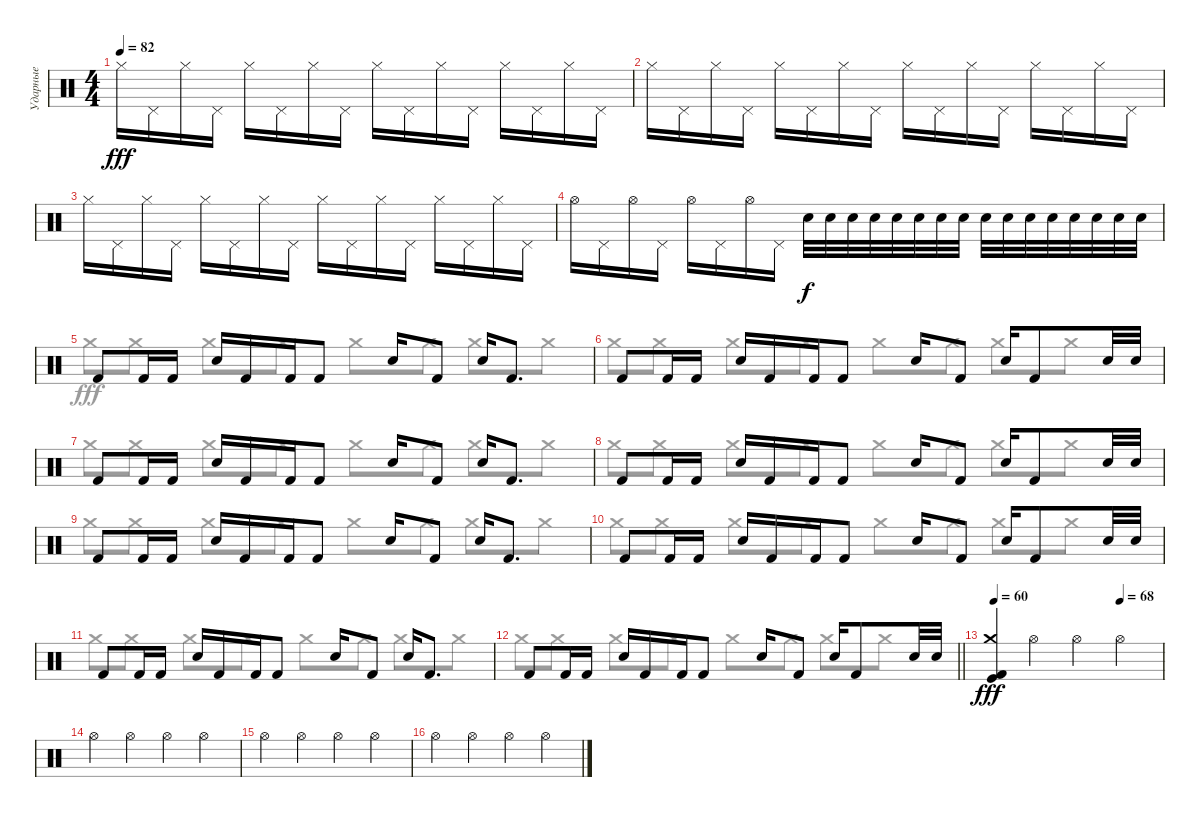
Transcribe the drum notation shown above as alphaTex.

\track ("Ударные" "Ударные") {instrument percussion}
\staff {score}
\articulation defaults
\voice
\ts (4 4)
\tempo 82
\clef neutral
\ks c "Hi-Hat (closed)".16{dy fff} "Pedal Hi-Hat (hit)".16 "Hi-Hat (closed)".16 "Pedal Hi-Hat (hit)".16 "Hi-Hat (closed)".16 "Pedal Hi-Hat (hit)".16 "Hi-Hat (closed)".16 "Pedal Hi-Hat (hit)".16 "Hi-Hat (closed)".16 "Pedal Hi-Hat (hit)".16 "Hi-Hat (closed)".16 "Pedal Hi-Hat (hit)".16 "Hi-Hat (closed)".16 "Pedal Hi-Hat (hit)".16 "Hi-Hat (closed)".16 "Pedal Hi-Hat (hit)".16
|
"Hi-Hat (closed)".16 "Pedal Hi-Hat (hit)".16 "Hi-Hat (closed)".16 "Pedal Hi-Hat (hit)".16 "Hi-Hat (closed)".16 "Pedal Hi-Hat (hit)".16 "Hi-Hat (closed)".16 "Pedal Hi-Hat (hit)".16 "Hi-Hat (closed)".16 "Pedal Hi-Hat (hit)".16 "Hi-Hat (closed)".16 "Pedal Hi-Hat (hit)".16 "Hi-Hat (closed)".16 "Pedal Hi-Hat (hit)".16 "Hi-Hat (closed)".16 "Pedal Hi-Hat (hit)".16 |
"Hi-Hat (closed)".16 "Pedal Hi-Hat (hit)".16 "Hi-Hat (closed)".16 "Pedal Hi-Hat (hit)".16 "Hi-Hat (closed)".16 "Pedal Hi-Hat (hit)".16 "Hi-Hat (closed)".16 "Pedal Hi-Hat (hit)".16 "Hi-Hat (closed)".16 "Pedal Hi-Hat (hit)".16 "Hi-Hat (closed)".16 "Pedal Hi-Hat (hit)".16 "Hi-Hat (closed)".16 "Pedal Hi-Hat (hit)".16 "Hi-Hat (closed)".16 "Pedal Hi-Hat (hit)".16 |
"Hi-Hat (open)".16 "Pedal Hi-Hat (hit)".16 "Hi-Hat (open)".16 "Pedal Hi-Hat (hit)".16 "Hi-Hat (open)".16 "Pedal Hi-Hat (hit)".16 "Hi-Hat (open)".16 "Pedal Hi-Hat (hit)".16 "Electric Snare (hit)".32{dy f} "Electric Snare (hit)".32 "Electric Snare (hit)".32 "Electric Snare (hit)".32 "Electric Snare (hit)".32 "Electric Snare (hit)".32 "Electric Snare (hit)".32 "Electric Snare (hit)".32 "Snare (hit) 2".32 "Snare (hit) 2".32 "Snare (hit) 2".32 "Snare (hit) 2".32 "Snare (hit) 2".32 "Snare (hit) 2".32 "Snare (hit) 2".32 "Snare (hit) 2".32 |
"Kick (hit) 2".8 "Kick (hit) 2".16 "Kick (hit) 2".16 "Snare (hit) 2".16 "Kick (hit) 2".16 "Kick (hit) 2".16 "Kick (hit) 2".8 "Snare (hit) 2".16 "Kick (hit) 2".8 "Snare (hit) 2".16 "Kick (hit) 2".8{d} |
"Kick (hit) 2".8 "Kick (hit) 2".16 "Kick (hit) 2".16 "Snare (hit) 2".16 "Kick (hit) 2".16 "Kick (hit) 2".16 "Kick (hit) 2".8 "Snare (hit) 2".16 "Kick (hit) 2".8 "Snare (hit) 2".16 "Kick (hit) 2".8 "Snare (hit) 2".32 "Snare (hit) 2".32 |
"Kick (hit) 2".8 "Kick (hit) 2".16 "Kick (hit) 2".16 "Snare (hit) 2".16 "Kick (hit) 2".16 "Kick (hit) 2".16 "Kick (hit) 2".8 "Snare (hit) 2".16 "Kick (hit) 2".8 "Snare (hit) 2".16 "Kick (hit) 2".8{d} |
"Kick (hit) 2".8 "Kick (hit) 2".16 "Kick (hit) 2".16 "Snare (hit) 2".16 "Kick (hit) 2".16 "Kick (hit) 2".16 "Kick (hit) 2".8 "Snare (hit) 2".16 "Kick (hit) 2".8 "Snare (hit) 2".16 "Kick (hit) 2".8 "Snare (hit) 2".32 "Snare (hit) 2".32 |
"Kick (hit) 2".8 "Kick (hit) 2".16 "Kick (hit) 2".16 "Snare (hit) 2".16 "Kick (hit) 2".16 "Kick (hit) 2".16 "Kick (hit) 2".8 "Snare (hit) 2".16 "Kick (hit) 2".8 "Snare (hit) 2".16 "Kick (hit) 2".8{d} |
"Kick (hit) 2".8 "Kick (hit) 2".16 "Kick (hit) 2".16 "Snare (hit) 2".16 "Kick (hit) 2".16 "Kick (hit) 2".16 "Kick (hit) 2".8 "Snare (hit) 2".16 "Kick (hit) 2".8 "Snare (hit) 2".16 "Kick (hit) 2".8 "Snare (hit) 2".32 "Snare (hit) 2".32 |
"Kick (hit) 2".8 "Kick (hit) 2".16 "Kick (hit) 2".16 "Snare (hit) 2".16 "Kick (hit) 2".16 "Kick (hit) 2".16 "Kick (hit) 2".8 "Snare (hit) 2".16 "Kick (hit) 2".8 "Snare (hit) 2".16 "Kick (hit) 2".8{d} |
\barLineRight lightlight "Kick (hit) 2".8 "Kick (hit) 2".16 "Kick (hit) 2".16 "Snare (hit) 2".16 "Kick (hit) 2".16 "Kick (hit) 2".16 "Kick (hit) 2".8 "Snare (hit) 2".16 "Kick (hit) 2".8 "Snare (hit) 2".16 "Kick (hit) 2".8 "Snare (hit) 2".32 "Snare (hit) 2".32
|
\tempo 60
\tempo (68 0.75)
("Crash medium (hit)" "Kick (hit) 2" "Kick (hit)").4{dy fff} "Hi-Hat (open)".4 "Hi-Hat (open)".4 "Hi-Hat (open)".4 |
"Hi-Hat (open)".4 "Hi-Hat (open)".4 "Hi-Hat (open)".4 "Hi-Hat (open)".4 |
"Hi-Hat (open)".4 "Hi-Hat (open)".4 "Hi-Hat (open)".4 "Hi-Hat (open)".4 |
"Hi-Hat (open)".4 "Hi-Hat (open)".4 "Hi-Hat (open)".4 "Hi-Hat (open)".4
\voice
\clef neutral
\ottava regular
\simile none
\ks c
|
|
|
|
"Crash medium (hit)".8 "Crash medium (hit)".8 "Crash medium (hit)".8 "Crash medium (hit)".8 "Crash medium (hit)".8 "Crash medium (hit)".8 "Crash medium (hit)".8 "Crash medium (hit)".8 |
"Crash medium (hit)".8 "Crash medium (hit)".8 "Crash medium (hit)".8 "Crash medium (hit)".8 "Crash medium (hit)".8 "Crash medium (hit)".8 "Crash medium (hit)".8 "Crash medium (hit)".8 |
"Crash medium (hit)".8 "Crash medium (hit)".8 "Crash medium (hit)".8 "Crash medium (hit)".8 "Crash medium (hit)".8 "Crash medium (hit)".8 "Crash medium (hit)".8 "Crash medium (hit)".8 |
"Crash medium (hit)".8 "Crash medium (hit)".8 "Crash medium (hit)".8 "Crash medium (hit)".8 "Crash medium (hit)".8 "Crash medium (hit)".8 "Crash medium (hit)".8 "Crash medium (hit)".8 |
"Crash medium (hit)".8 "Crash medium (hit)".8 "Crash medium (hit)".8 "Crash medium (hit)".8 "Crash medium (hit)".8 "Crash medium (hit)".8 "Crash medium (hit)".8 "Crash medium (hit)".8 |
"Crash medium (hit)".8 "Crash medium (hit)".8 "Crash medium (hit)".8 "Crash medium (hit)".8 "Crash medium (hit)".8 "Crash medium (hit)".8 "Crash medium (hit)".8 "Crash medium (hit)".8 |
"Crash medium (hit)".8 "Crash medium (hit)".8 "Crash medium (hit)".8 "Crash medium (hit)".8 "Crash medium (hit)".8 "Crash medium (hit)".8 "Crash medium (hit)".8 "Crash medium (hit)".8 |
\barLineRight lightlight "Crash medium (hit)".8 "Crash medium (hit)".8 "Crash medium (hit)".8 "Crash medium (hit)".8 "Crash medium (hit)".8 "Crash medium (hit)".8 "Crash medium (hit)".8 "Crash medium (hit)".8
|
|
|
|
